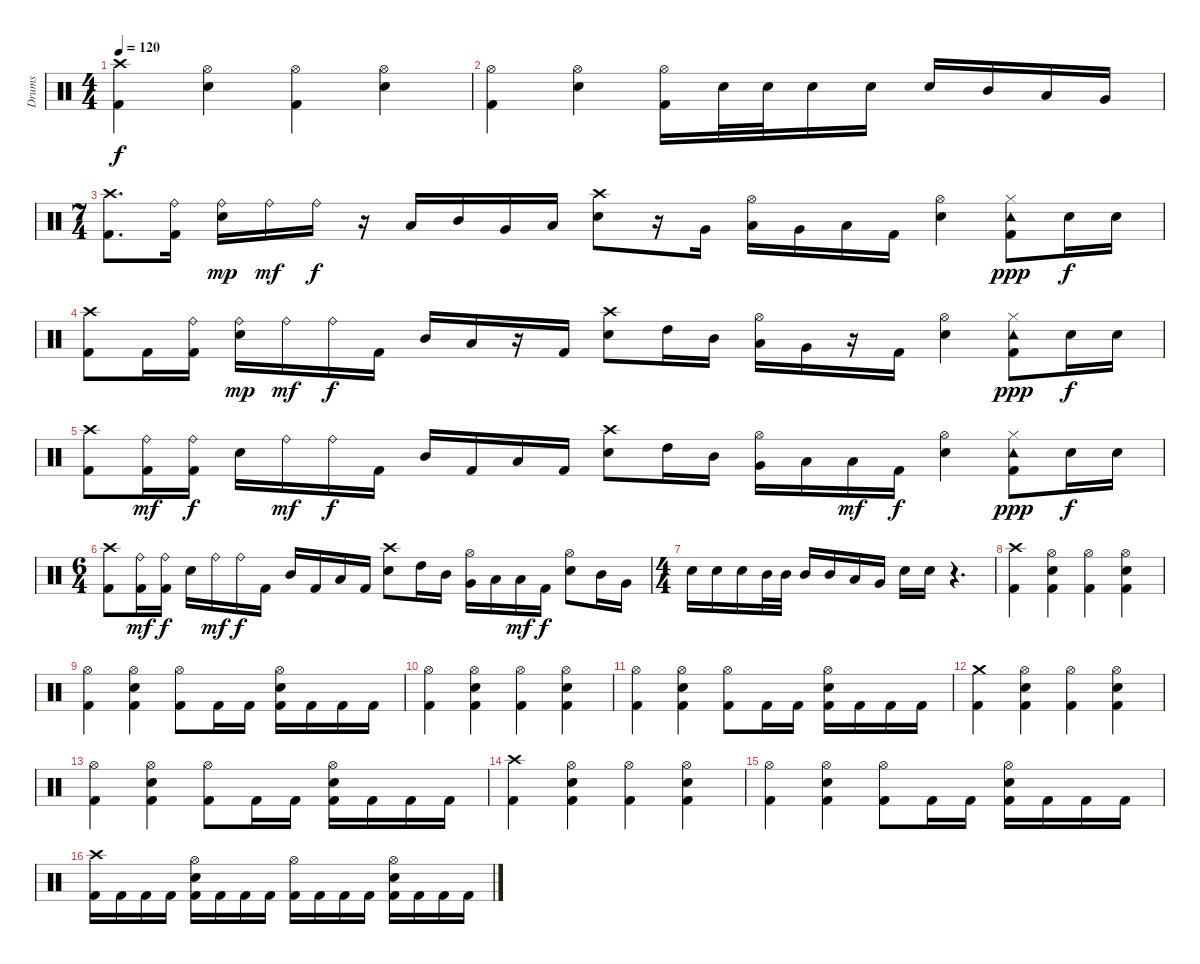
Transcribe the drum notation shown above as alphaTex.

\track ("Drums" "Drums") {instrument percussion}
\staff {score}
\articulation defaults
\ts (4 4)
\tempo 120
\clef neutral
\ks c
("Kick (hit) 2" "Crash high (hit)").4{dy f} ("Electric Snare (hit)" "Hi-Hat (open)").4 ("Kick (hit) 2" "Hi-Hat (open)").4 ("Electric Snare (hit)" "Hi-Hat (open)").4 |
("Kick (hit) 2" "Hi-Hat (open)").4 ("Electric Snare (hit)" "Hi-Hat (open)").4 ("Kick (hit) 2" "Hi-Hat (open)").16 "Electric Snare (hit)".32 "Electric Snare (hit)".32 "Electric Snare (hit)".16 "Electric Snare (hit)".16 "Electric Snare (hit)".16 "Mid Tom (hit)".16 "Low Tom (hit)".16 "Very Low Tom (hit)".16 |
\ts (7 4)
("Crash high (hit)" "Kick (hit) 2").8{d} ("Kick (hit) 2" "Ride (bell)").16 ("Electric Snare (hit)" "Ride (bell)").16{dy mp} "Ride (bell)".16{dy mf} "Ride (bell)".16{dy f} r.16 "Low Tom (hit)".16 "Mid Tom (hit)".16 "Very Low Tom (hit)".16 "Low Floor Tom (hit)".16 ("Crash high (hit)" "Electric Snare (hit)").8 r.16 "Very Low Tom (hit)".16 ("Low Tom (hit)" "Hi-Hat (open)").16 "Very Low Tom (hit)".16 "Low Floor Tom (hit)".16 "Kick (hit) 2".16 ("Electric Snare (hit)" "Hi-Hat (open)").4 ("Tambourine (hit)" "Kick (hit) 2" "Hi-Hat (closed)").8{dy ppp} "Electric Snare (hit)".16{dy f} "Electric Snare (hit)".16 |
("Crash high (hit)" "Kick (hit) 2").8 "Kick (hit) 2".16 ("Kick (hit) 2" "Ride (bell)").16 ("Ride (bell)" "Electric Snare (hit)").16{dy mp} "Ride (bell)".16{dy mf} "Ride (bell)".16{dy f} "Kick (hit) 2".16 "Mid Tom (hit)".16 "Low Tom (hit)".16 r.16 "Kick (hit) 2".16 ("Crash high (hit)" "Electric Snare (hit)").8 "High Tom (hit)".16 "Mid Tom (hit)".16 ("Low Tom (hit)" "Hi-Hat (open)").16 "Very Low Tom (hit)".16 r.16 "Kick (hit) 2".16 ("Electric Snare (hit)" "Hi-Hat (open)").4 ("Tambourine (hit)" "Kick (hit) 2" "Hi-Hat (closed)").8{dy ppp} "Electric Snare (hit)".16{dy f} "Electric Snare (hit)".16 |
("Kick (hit) 2" "Crash high (hit)").8 ("Kick (hit) 2" "Ride (bell)").16{dy mf} ("Kick (hit) 2" "Ride (bell)").16{dy f} "Electric Snare (hit)".16 "Ride (bell)".16{dy mf} "Ride (bell)".16{dy f} "Kick (hit) 2".16 "Mid Tom (hit)".16 "Kick (hit) 2".16 "Low Tom (hit)".16 "Kick (hit) 2".16 ("Crash high (hit)" "Electric Snare (hit)").8 "High Tom (hit)".16 "Mid Tom (hit)".16 ("Hi-Hat (open)" "Very Low Tom (hit)").16 "Low Floor Tom (hit)".16 "Low Floor Tom (hit)".16{dy mf} "Kick (hit) 2".16{dy f} ("Electric Snare (hit)" "Hi-Hat (open)").4 ("Tambourine (hit)" "Kick (hit) 2" "Hi-Hat (closed)").8{dy ppp} "Electric Snare (hit)".16{dy f} "Electric Snare (hit)".16 |
\ts (6 4)
("Crash high (hit)" "Kick (hit) 2").8 ("Kick (hit) 2" "Ride (bell)").16{dy mf} ("Kick (hit) 2" "Ride (bell)").16{dy f} "Electric Snare (hit)".16 "Ride (bell)".16{dy mf} "Ride (bell)".16{dy f} "Kick (hit) 2".16 "Mid Tom (hit)".16 "Kick (hit) 2".16 "Low Tom (hit)".16 "Kick (hit) 2".16 ("Crash high (hit)" "Electric Snare (hit)").8 "High Tom (hit)".16 "Mid Tom (hit)".16 ("Hi-Hat (open)" "Very Low Tom (hit)").16 "Low Floor Tom (hit)".16 "Low Floor Tom (hit)".16{dy mf} "Kick (hit) 2".16{dy f} ("Electric Snare (hit)" "Hi-Hat (open)").8 "Mid Tom (hit)".16 "Very Low Tom (hit)".16 |
\ts (4 4)
"Electric Snare (hit)".16 "Electric Snare (hit)".16 "Electric Snare (hit)".16 "Mid Tom (hit)".32 "Mid Tom (hit)".32 "Mid Tom (hit)".16 "Mid Tom (hit)".16 "Low Tom (hit)".16 "Very Low Tom (hit)".16 "Electric Snare (hit)".16 "Electric Snare (hit)".16 r.4{d} |
("Kick (hit) 2" "Crash high (hit)").4 ("Hi-Hat (open)" "Electric Snare (hit)" "Kick (hit) 2").4 ("Hi-Hat (open)" "Kick (hit) 2").4 ("Hi-Hat (open)" "Electric Snare (hit)" "Kick (hit) 2").4 |
("Hi-Hat (open)" "Kick (hit) 2").4 ("Hi-Hat (open)" "Electric Snare (hit)" "Kick (hit) 2").4 ("Hi-Hat (open)" "Kick (hit) 2").8 "Kick (hit) 2".16 "Kick (hit) 2".16 ("Hi-Hat (open)" "Kick (hit) 2" "Electric Snare (hit)").16 "Kick (hit) 2".16 "Kick (hit) 2".16 "Kick (hit) 2".16 |
("Kick (hit) 2" "Hi-Hat (open)").4 ("Hi-Hat (open)" "Electric Snare (hit)" "Kick (hit) 2").4 ("Hi-Hat (open)" "Kick (hit) 2").4 ("Hi-Hat (open)" "Electric Snare (hit)" "Kick (hit) 2").4 |
("Hi-Hat (open)" "Kick (hit) 2").4 ("Hi-Hat (open)" "Electric Snare (hit)" "Kick (hit) 2").4 ("Hi-Hat (open)" "Kick (hit) 2").8 "Kick (hit) 2".16 "Kick (hit) 2".16 ("Hi-Hat (open)" "Kick (hit) 2" "Electric Snare (hit)").16 "Kick (hit) 2".16 "Kick (hit) 2".16 "Kick (hit) 2".16 |
("Kick (hit) 2" "Crash medium (hit)").4 ("Hi-Hat (open)" "Electric Snare (hit)" "Kick (hit) 2").4 ("Hi-Hat (open)" "Kick (hit) 2").4 ("Hi-Hat (open)" "Electric Snare (hit)" "Kick (hit) 2").4 |
("Hi-Hat (open)" "Kick (hit) 2").4 ("Hi-Hat (open)" "Electric Snare (hit)" "Kick (hit) 2").4 ("Hi-Hat (open)" "Kick (hit) 2").8 "Kick (hit) 2".16 "Kick (hit) 2".16 ("Hi-Hat (open)" "Kick (hit) 2" "Electric Snare (hit)").16 "Kick (hit) 2".16 "Kick (hit) 2".16 "Kick (hit) 2".16 |
("Kick (hit) 2" "Crash high (hit)").4 ("Hi-Hat (open)" "Electric Snare (hit)" "Kick (hit) 2").4 ("Hi-Hat (open)" "Kick (hit) 2").4 ("Hi-Hat (open)" "Electric Snare (hit)" "Kick (hit) 2").4 |
("Hi-Hat (open)" "Kick (hit) 2").4 ("Hi-Hat (open)" "Electric Snare (hit)" "Kick (hit) 2").4 ("Hi-Hat (open)" "Kick (hit) 2").8 "Kick (hit) 2".16 "Kick (hit) 2".16 ("Hi-Hat (open)" "Kick (hit) 2" "Electric Snare (hit)").16 "Kick (hit) 2".16 "Kick (hit) 2".16 "Kick (hit) 2".16 |
("Kick (hit) 2" "Crash high (hit)").16 "Kick (hit) 2".16 "Kick (hit) 2".16 "Kick (hit) 2".16 ("Kick (hit) 2" "Electric Snare (hit)" "Hi-Hat (open)").16 "Kick (hit) 2".16 "Kick (hit) 2".16 "Kick (hit) 2".16 ("Kick (hit) 2" "Hi-Hat (open)").16 "Kick (hit) 2".16 "Kick (hit) 2".16 "Kick (hit) 2".16 ("Kick (hit) 2" "Electric Snare (hit)" "Hi-Hat (open)").16 "Kick (hit) 2".16 "Kick (hit) 2".16 "Kick (hit) 2".16
